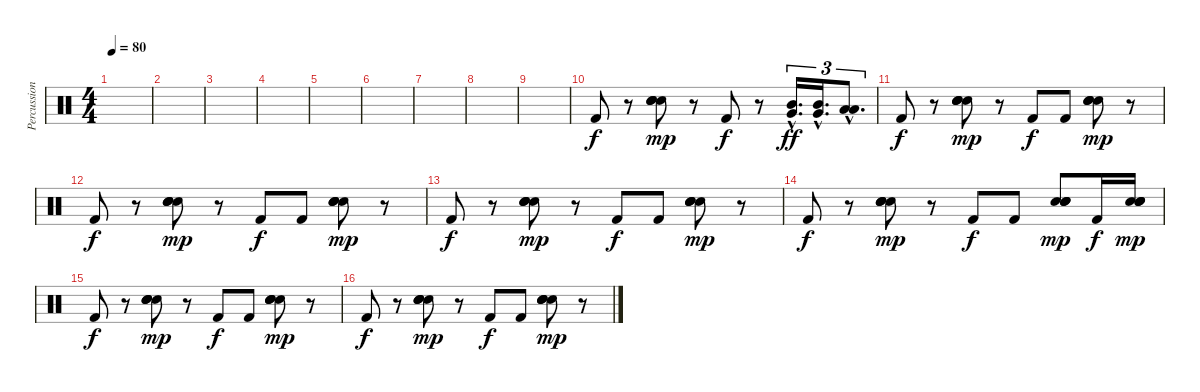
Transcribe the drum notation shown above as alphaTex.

\track ("Percussion" "Percussion") {instrument percussion}
\staff {score}
\articulation defaults
\ts (4 4)
\tempo 80
\clef neutral
\ks c
|
|
|
|
|
|
|
|
|
"Kick (hit) 2".8 r.8 ("Snare (hit) 2" "Snare (hit) 2" "Snare (hit) 2" "Snare (hit) 2").8{bd 60 dy mp} r.8 "Kick (hit) 2".8{dy f} r.8 ("Mid Tom (hit)"{hac} "Very Low Tom (hit)"{hac}).16{d tu (3 2) bu 60 dy ff} ("Mid Tom (hit)"{hac} "Very Low Tom (hit)"{hac}).16{d tu (3 2) bu 60} ("Low Tom (hit)"{hac} "Low Floor Tom (hit)"{hac}).8{d tu (3 2) bu 60} |
"Kick (hit) 2".8{dy f} r.8 ("Snare (hit) 2" "Snare (hit) 2" "Snare (hit) 2" "Snare (hit) 2").8{bd 60 dy mp} r.8 "Kick (hit) 2".8{dy f} "Kick (hit) 2".8 ("Snare (hit) 2" "Snare (hit) 2" "Snare (hit) 2" "Snare (hit) 2").8{bd 60 dy mp} r.8 |
"Kick (hit) 2".8{dy f} r.8 ("Snare (hit) 2" "Snare (hit) 2" "Snare (hit) 2" "Snare (hit) 2").8{bd 60 dy mp} r.8 "Kick (hit) 2".8{dy f} "Kick (hit) 2".8 ("Snare (hit) 2" "Snare (hit) 2" "Snare (hit) 2" "Snare (hit) 2").8{bd 60 dy mp} r.8 |
"Kick (hit) 2".8{dy f} r.8 ("Snare (hit) 2" "Snare (hit) 2" "Snare (hit) 2" "Snare (hit) 2").8{bd 60 dy mp} r.8 "Kick (hit) 2".8{dy f} "Kick (hit) 2".8 ("Snare (hit) 2" "Snare (hit) 2" "Snare (hit) 2" "Snare (hit) 2").8{bd 60 dy mp} r.8 |
"Kick (hit) 2".8{dy f} r.8 ("Snare (hit) 2" "Snare (hit) 2" "Snare (hit) 2" "Snare (hit) 2").8{bd 60 dy mp} r.8 "Kick (hit) 2".8{dy f} "Kick (hit) 2".8 ("Snare (hit) 2" "Snare (hit) 2" "Snare (hit) 2" "Snare (hit) 2").8{bd 60 dy mp} "Kick (hit) 2".16{dy f} ("Snare (hit) 2" "Snare (hit) 2" "Snare (hit) 2" "Snare (hit) 2").16{bd 60 dy mp} |
"Kick (hit) 2".8{dy f} r.8 ("Snare (hit) 2" "Snare (hit) 2" "Snare (hit) 2" "Snare (hit) 2").8{bd 60 dy mp} r.8 "Kick (hit) 2".8{dy f} "Kick (hit) 2".8 ("Snare (hit) 2" "Snare (hit) 2" "Snare (hit) 2" "Snare (hit) 2").8{bd 60 dy mp} r.8 |
"Kick (hit) 2".8{dy f} r.8 ("Snare (hit) 2" "Snare (hit) 2" "Snare (hit) 2" "Snare (hit) 2").8{bd 60 dy mp} r.8 "Kick (hit) 2".8{dy f} "Kick (hit) 2".8 ("Snare (hit) 2" "Snare (hit) 2" "Snare (hit) 2" "Snare (hit) 2").8{bd 60 dy mp} r.8
